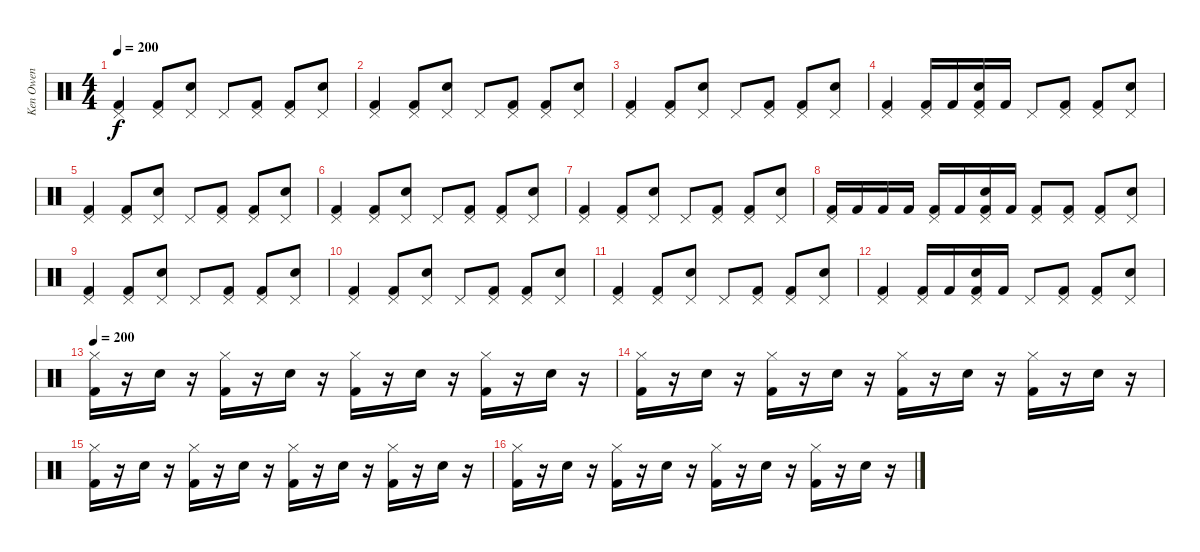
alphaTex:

\track ("Ken Owen" "Ken Owen") {instrument percussion}
\staff {score}
\articulation defaults
\ts (4 4)
\tempo 200
\clef neutral
\ks c
("Pedal Hi-Hat (hit)" "Kick (hit) 2").4{dy f} ("Pedal Hi-Hat (hit)" "Kick (hit) 2").8 ("Pedal Hi-Hat (hit)" "Snare (hit) 2").8 "Pedal Hi-Hat (hit)".8 ("Pedal Hi-Hat (hit)" "Kick (hit) 2").8 ("Pedal Hi-Hat (hit)" "Kick (hit) 2").8 ("Pedal Hi-Hat (hit)" "Snare (hit) 2").8 |
("Pedal Hi-Hat (hit)" "Kick (hit) 2").4 ("Pedal Hi-Hat (hit)" "Kick (hit) 2").8 ("Pedal Hi-Hat (hit)" "Snare (hit) 2").8 "Pedal Hi-Hat (hit)".8 ("Pedal Hi-Hat (hit)" "Kick (hit) 2").8 ("Pedal Hi-Hat (hit)" "Kick (hit) 2").8 ("Pedal Hi-Hat (hit)" "Snare (hit) 2").8 |
("Pedal Hi-Hat (hit)" "Kick (hit) 2").4 ("Pedal Hi-Hat (hit)" "Kick (hit) 2").8 ("Pedal Hi-Hat (hit)" "Snare (hit) 2").8 "Pedal Hi-Hat (hit)".8 ("Pedal Hi-Hat (hit)" "Kick (hit) 2").8 ("Pedal Hi-Hat (hit)" "Kick (hit) 2").8 ("Pedal Hi-Hat (hit)" "Snare (hit) 2").8 |
("Pedal Hi-Hat (hit)" "Kick (hit) 2").4 ("Pedal Hi-Hat (hit)" "Kick (hit) 2").16 "Kick (hit) 2".16 ("Pedal Hi-Hat (hit)" "Kick (hit) 2" "Snare (hit) 2").16 "Kick (hit) 2".16 "Pedal Hi-Hat (hit)".8 ("Pedal Hi-Hat (hit)" "Kick (hit) 2").8 ("Pedal Hi-Hat (hit)" "Kick (hit) 2").8 ("Pedal Hi-Hat (hit)" "Snare (hit) 2").8 |
("Pedal Hi-Hat (hit)" "Kick (hit) 2").4 ("Pedal Hi-Hat (hit)" "Kick (hit) 2").8 ("Pedal Hi-Hat (hit)" "Snare (hit) 2").8 "Pedal Hi-Hat (hit)".8 ("Pedal Hi-Hat (hit)" "Kick (hit) 2").8 ("Pedal Hi-Hat (hit)" "Kick (hit) 2").8 ("Pedal Hi-Hat (hit)" "Snare (hit) 2").8 |
("Pedal Hi-Hat (hit)" "Kick (hit) 2").4 ("Pedal Hi-Hat (hit)" "Kick (hit) 2").8 ("Pedal Hi-Hat (hit)" "Snare (hit) 2").8 "Pedal Hi-Hat (hit)".8 ("Pedal Hi-Hat (hit)" "Kick (hit) 2").8 ("Pedal Hi-Hat (hit)" "Kick (hit) 2").8 ("Pedal Hi-Hat (hit)" "Snare (hit) 2").8 |
("Pedal Hi-Hat (hit)" "Kick (hit) 2").4 ("Pedal Hi-Hat (hit)" "Kick (hit) 2").8 ("Pedal Hi-Hat (hit)" "Snare (hit) 2").8 "Pedal Hi-Hat (hit)".8 ("Pedal Hi-Hat (hit)" "Kick (hit) 2").8 ("Pedal Hi-Hat (hit)" "Kick (hit) 2").8 ("Pedal Hi-Hat (hit)" "Snare (hit) 2").8 |
("Pedal Hi-Hat (hit)" "Kick (hit) 2").16 "Kick (hit) 2".16 "Kick (hit) 2".16 "Kick (hit) 2".16 ("Pedal Hi-Hat (hit)" "Kick (hit) 2").16 "Kick (hit) 2".16 ("Pedal Hi-Hat (hit)" "Kick (hit) 2" "Snare (hit) 2").16 "Kick (hit) 2".16 ("Pedal Hi-Hat (hit)" "Kick (hit) 2").8 ("Pedal Hi-Hat (hit)" "Kick (hit) 2").8 ("Pedal Hi-Hat (hit)" "Kick (hit) 2").8 ("Pedal Hi-Hat (hit)" "Snare (hit) 2").8 |
("Pedal Hi-Hat (hit)" "Kick (hit) 2").4 ("Pedal Hi-Hat (hit)" "Kick (hit) 2").8 ("Pedal Hi-Hat (hit)" "Snare (hit) 2").8 "Pedal Hi-Hat (hit)".8 ("Pedal Hi-Hat (hit)" "Kick (hit) 2").8 ("Pedal Hi-Hat (hit)" "Kick (hit) 2").8 ("Pedal Hi-Hat (hit)" "Snare (hit) 2").8 |
("Pedal Hi-Hat (hit)" "Kick (hit) 2").4 ("Pedal Hi-Hat (hit)" "Kick (hit) 2").8 ("Pedal Hi-Hat (hit)" "Snare (hit) 2").8 "Pedal Hi-Hat (hit)".8 ("Pedal Hi-Hat (hit)" "Kick (hit) 2").8 ("Pedal Hi-Hat (hit)" "Kick (hit) 2").8 ("Pedal Hi-Hat (hit)" "Snare (hit) 2").8 |
("Pedal Hi-Hat (hit)" "Kick (hit) 2").4 ("Pedal Hi-Hat (hit)" "Kick (hit) 2").8 ("Pedal Hi-Hat (hit)" "Snare (hit) 2").8 "Pedal Hi-Hat (hit)".8 ("Pedal Hi-Hat (hit)" "Kick (hit) 2").8 ("Pedal Hi-Hat (hit)" "Kick (hit) 2").8 ("Pedal Hi-Hat (hit)" "Snare (hit) 2").8 |
("Pedal Hi-Hat (hit)" "Kick (hit) 2").4 ("Pedal Hi-Hat (hit)" "Kick (hit) 2").16 "Kick (hit) 2".16 ("Pedal Hi-Hat (hit)" "Kick (hit) 2" "Snare (hit) 2").16 "Kick (hit) 2".16 "Pedal Hi-Hat (hit)".8 ("Pedal Hi-Hat (hit)" "Kick (hit) 2").8 ("Pedal Hi-Hat (hit)" "Kick (hit) 2").8 ("Pedal Hi-Hat (hit)" "Snare (hit) 2").8 |
\tempo 200
("Hi-Hat (closed)" "Kick (hit) 2").16 r.16 "Snare (hit) 2".16 r.16 ("Hi-Hat (closed)" "Kick (hit) 2").16 r.16 "Snare (hit) 2".16 r.16 ("Hi-Hat (closed)" "Kick (hit) 2").16 r.16 "Snare (hit) 2".16 r.16 ("Hi-Hat (closed)" "Kick (hit) 2").16 r.16 "Snare (hit) 2".16 r.16 |
("Hi-Hat (closed)" "Kick (hit) 2").16 r.16 "Snare (hit) 2".16 r.16 ("Hi-Hat (closed)" "Kick (hit) 2").16 r.16 "Snare (hit) 2".16 r.16 ("Hi-Hat (closed)" "Kick (hit) 2").16 r.16 "Snare (hit) 2".16 r.16 ("Hi-Hat (closed)" "Kick (hit) 2").16 r.16 "Snare (hit) 2".16 r.16 |
("Hi-Hat (closed)" "Kick (hit) 2").16 r.16 "Snare (hit) 2".16 r.16 ("Hi-Hat (closed)" "Kick (hit) 2").16 r.16 "Snare (hit) 2".16 r.16 ("Hi-Hat (closed)" "Kick (hit) 2").16 r.16 "Snare (hit) 2".16 r.16 ("Hi-Hat (closed)" "Kick (hit) 2").16 r.16 "Snare (hit) 2".16 r.16 |
("Hi-Hat (closed)" "Kick (hit) 2").16 r.16 "Snare (hit) 2".16 r.16 ("Hi-Hat (closed)" "Kick (hit) 2").16 r.16 "Snare (hit) 2".16 r.16 ("Hi-Hat (closed)" "Kick (hit) 2").16 r.16 "Snare (hit) 2".16 r.16 ("Hi-Hat (closed)" "Kick (hit) 2").16 r.16 "Snare (hit) 2".16 r.16
